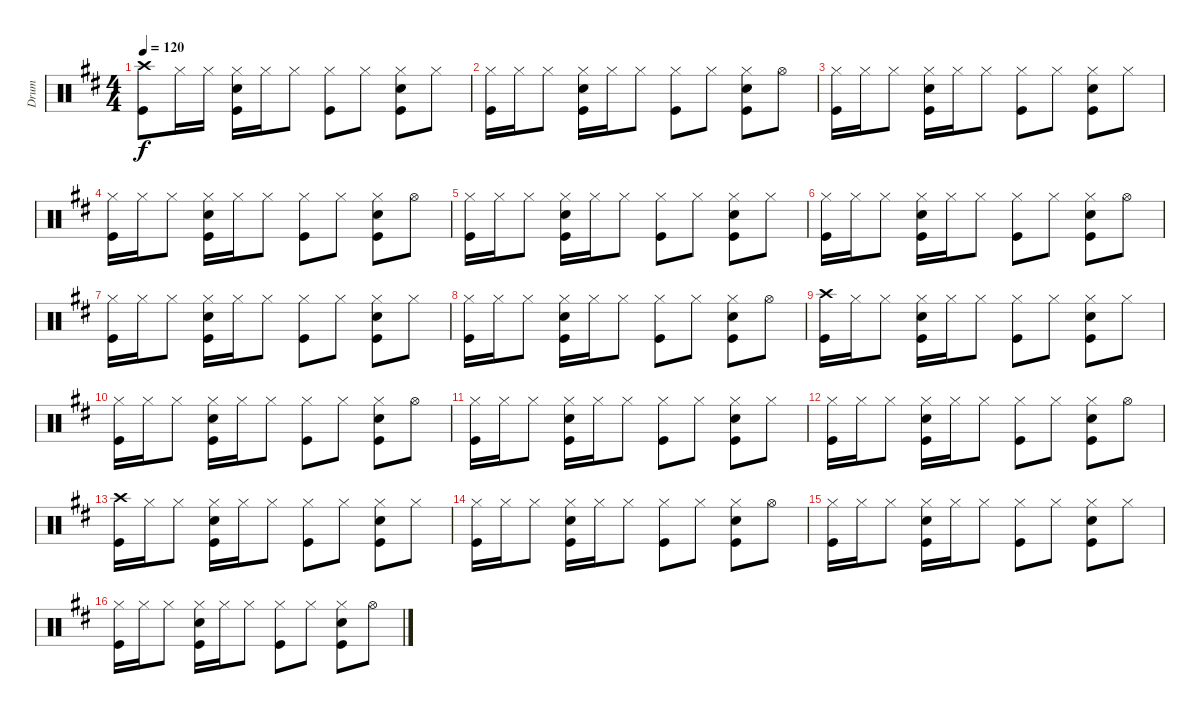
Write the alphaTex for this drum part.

\track ("Drum" "Drum") {instrument percussion}
\staff {score}
\articulation defaults
\ts (4 4)
\tempo 120
\clef neutral
\ks d
("Crash high (hit)" "Kick (hit)").8{dy f} "Hi-Hat (closed)".16 "Hi-Hat (closed)".16 ("Hi-Hat (closed)" "Snare (hit) 2" "Kick (hit)").16 "Hi-Hat (closed)".16 "Hi-Hat (closed)".8 ("Hi-Hat (closed)" "Kick (hit)").8 "Hi-Hat (closed)".8 ("Hi-Hat (closed)" "Snare (hit) 2" "Kick (hit)").8 "Hi-Hat (closed)".8 |
("Hi-Hat (closed)" "Kick (hit)").16 "Hi-Hat (closed)".16 "Hi-Hat (closed)".8 ("Hi-Hat (closed)" "Snare (hit) 2" "Kick (hit)").16 "Hi-Hat (closed)".16 "Hi-Hat (closed)".8 ("Hi-Hat (closed)" "Kick (hit)").8 "Hi-Hat (closed)".8 ("Hi-Hat (closed)" "Snare (hit) 2" "Kick (hit)").8 "Hi-Hat (open)".8 |
("Hi-Hat (closed)" "Kick (hit)").16 "Hi-Hat (closed)".16 "Hi-Hat (closed)".8 ("Hi-Hat (closed)" "Snare (hit) 2" "Kick (hit)").16 "Hi-Hat (closed)".16 "Hi-Hat (closed)".8 ("Hi-Hat (closed)" "Kick (hit)").8 "Hi-Hat (closed)".8 ("Hi-Hat (closed)" "Snare (hit) 2" "Kick (hit)").8 "Hi-Hat (closed)".8 |
("Hi-Hat (closed)" "Kick (hit)").16 "Hi-Hat (closed)".16 "Hi-Hat (closed)".8 ("Hi-Hat (closed)" "Snare (hit) 2" "Kick (hit)").16 "Hi-Hat (closed)".16 "Hi-Hat (closed)".8 ("Hi-Hat (closed)" "Kick (hit)").8 "Hi-Hat (closed)".8 ("Hi-Hat (closed)" "Snare (hit) 2" "Kick (hit)").8 "Hi-Hat (open)".8 |
("Hi-Hat (closed)" "Kick (hit)").16 "Hi-Hat (closed)".16 "Hi-Hat (closed)".8 ("Hi-Hat (closed)" "Snare (hit) 2" "Kick (hit)").16 "Hi-Hat (closed)".16 "Hi-Hat (closed)".8 ("Hi-Hat (closed)" "Kick (hit)").8 "Hi-Hat (closed)".8 ("Hi-Hat (closed)" "Snare (hit) 2" "Kick (hit)").8 "Hi-Hat (closed)".8 |
("Hi-Hat (closed)" "Kick (hit)").16 "Hi-Hat (closed)".16 "Hi-Hat (closed)".8 ("Hi-Hat (closed)" "Snare (hit) 2" "Kick (hit)").16 "Hi-Hat (closed)".16 "Hi-Hat (closed)".8 ("Hi-Hat (closed)" "Kick (hit)").8 "Hi-Hat (closed)".8 ("Hi-Hat (closed)" "Snare (hit) 2" "Kick (hit)").8 "Hi-Hat (open)".8 |
("Hi-Hat (closed)" "Kick (hit)").16 "Hi-Hat (closed)".16 "Hi-Hat (closed)".8 ("Hi-Hat (closed)" "Snare (hit) 2" "Kick (hit)").16 "Hi-Hat (closed)".16 "Hi-Hat (closed)".8 ("Hi-Hat (closed)" "Kick (hit)").8 "Hi-Hat (closed)".8 ("Hi-Hat (closed)" "Snare (hit) 2" "Kick (hit)").8 "Hi-Hat (closed)".8 |
("Hi-Hat (closed)" "Kick (hit)").16 "Hi-Hat (closed)".16 "Hi-Hat (closed)".8 ("Hi-Hat (closed)" "Snare (hit) 2" "Kick (hit)").16 "Hi-Hat (closed)".16 "Hi-Hat (closed)".8 ("Hi-Hat (closed)" "Kick (hit)").8 "Hi-Hat (closed)".8 ("Hi-Hat (closed)" "Snare (hit) 2" "Kick (hit)").8 "Hi-Hat (open)".8 |
("Crash high (hit)" "Kick (hit)").16 "Hi-Hat (closed)".16 "Hi-Hat (closed)".8 ("Hi-Hat (closed)" "Snare (hit) 2" "Kick (hit)").16 "Hi-Hat (closed)".16 "Hi-Hat (closed)".8 ("Hi-Hat (closed)" "Kick (hit)").8 "Hi-Hat (closed)".8 ("Hi-Hat (closed)" "Snare (hit) 2" "Kick (hit)").8 "Hi-Hat (closed)".8 |
("Hi-Hat (closed)" "Kick (hit)").16 "Hi-Hat (closed)".16 "Hi-Hat (closed)".8 ("Hi-Hat (closed)" "Snare (hit) 2" "Kick (hit)").16 "Hi-Hat (closed)".16 "Hi-Hat (closed)".8 ("Hi-Hat (closed)" "Kick (hit)").8 "Hi-Hat (closed)".8 ("Hi-Hat (closed)" "Snare (hit) 2" "Kick (hit)").8 "Hi-Hat (open)".8 |
("Hi-Hat (closed)" "Kick (hit)").16 "Hi-Hat (closed)".16 "Hi-Hat (closed)".8 ("Hi-Hat (closed)" "Snare (hit) 2" "Kick (hit)").16 "Hi-Hat (closed)".16 "Hi-Hat (closed)".8 ("Hi-Hat (closed)" "Kick (hit)").8 "Hi-Hat (closed)".8 ("Hi-Hat (closed)" "Snare (hit) 2" "Kick (hit)").8 "Hi-Hat (closed)".8 |
("Hi-Hat (closed)" "Kick (hit)").16 "Hi-Hat (closed)".16 "Hi-Hat (closed)".8 ("Hi-Hat (closed)" "Snare (hit) 2" "Kick (hit)").16 "Hi-Hat (closed)".16 "Hi-Hat (closed)".8 ("Hi-Hat (closed)" "Kick (hit)").8 "Hi-Hat (closed)".8 ("Hi-Hat (closed)" "Snare (hit) 2" "Kick (hit)").8 "Hi-Hat (open)".8 |
("Crash high (hit)" "Kick (hit)").16 "Hi-Hat (closed)".16 "Hi-Hat (closed)".8 ("Hi-Hat (closed)" "Snare (hit) 2" "Kick (hit)").16 "Hi-Hat (closed)".16 "Hi-Hat (closed)".8 ("Hi-Hat (closed)" "Kick (hit)").8 "Hi-Hat (closed)".8 ("Hi-Hat (closed)" "Snare (hit) 2" "Kick (hit)").8 "Hi-Hat (closed)".8 |
("Hi-Hat (closed)" "Kick (hit)").16 "Hi-Hat (closed)".16 "Hi-Hat (closed)".8 ("Hi-Hat (closed)" "Snare (hit) 2" "Kick (hit)").16 "Hi-Hat (closed)".16 "Hi-Hat (closed)".8 ("Hi-Hat (closed)" "Kick (hit)").8 "Hi-Hat (closed)".8 ("Hi-Hat (closed)" "Snare (hit) 2" "Kick (hit)").8 "Hi-Hat (open)".8 |
("Hi-Hat (closed)" "Kick (hit)").16 "Hi-Hat (closed)".16 "Hi-Hat (closed)".8 ("Hi-Hat (closed)" "Snare (hit) 2" "Kick (hit)").16 "Hi-Hat (closed)".16 "Hi-Hat (closed)".8 ("Hi-Hat (closed)" "Kick (hit)").8 "Hi-Hat (closed)".8 ("Hi-Hat (closed)" "Snare (hit) 2" "Kick (hit)").8 "Hi-Hat (closed)".8 |
("Hi-Hat (closed)" "Kick (hit)").16 "Hi-Hat (closed)".16 "Hi-Hat (closed)".8 ("Hi-Hat (closed)" "Snare (hit) 2" "Kick (hit)").16 "Hi-Hat (closed)".16 "Hi-Hat (closed)".8 ("Hi-Hat (closed)" "Kick (hit)").8 "Hi-Hat (closed)".8 ("Hi-Hat (closed)" "Snare (hit) 2" "Kick (hit)").8 "Hi-Hat (open)".8
